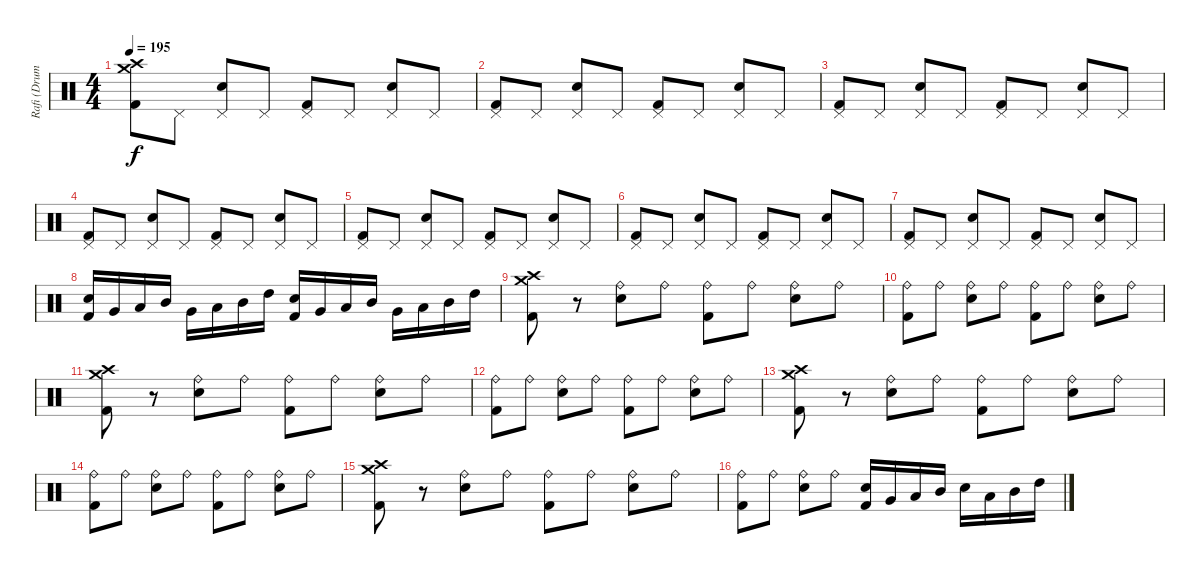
\track ("Rafi (Drums)" "Rafi (Drum") {instrument percussion}
\staff {score}
\articulation defaults
\ts (4 4)
\tempo 195
\clef neutral
\ks c
("Crash medium (hit)" "Crash high (hit)" "Kick (hit) 2").8{dy f} "Pedal Hi-Hat (hit)".8 ("Pedal Hi-Hat (hit)" "Snare (hit) 2").8 "Pedal Hi-Hat (hit)".8 ("Pedal Hi-Hat (hit)" "Kick (hit) 2").8 "Pedal Hi-Hat (hit)".8 ("Pedal Hi-Hat (hit)" "Snare (hit) 2").8 "Pedal Hi-Hat (hit)".8 |
("Pedal Hi-Hat (hit)" "Kick (hit) 2").8 "Pedal Hi-Hat (hit)".8 ("Pedal Hi-Hat (hit)" "Snare (hit) 2").8 "Pedal Hi-Hat (hit)".8 ("Pedal Hi-Hat (hit)" "Kick (hit) 2").8 "Pedal Hi-Hat (hit)".8 ("Pedal Hi-Hat (hit)" "Snare (hit) 2").8 "Pedal Hi-Hat (hit)".8 |
("Pedal Hi-Hat (hit)" "Kick (hit) 2").8 "Pedal Hi-Hat (hit)".8 ("Pedal Hi-Hat (hit)" "Snare (hit) 2").8 "Pedal Hi-Hat (hit)".8 ("Pedal Hi-Hat (hit)" "Kick (hit) 2").8 "Pedal Hi-Hat (hit)".8 ("Pedal Hi-Hat (hit)" "Snare (hit) 2").8 "Pedal Hi-Hat (hit)".8 |
("Pedal Hi-Hat (hit)" "Kick (hit) 2").8 "Pedal Hi-Hat (hit)".8 ("Pedal Hi-Hat (hit)" "Snare (hit) 2").8 "Pedal Hi-Hat (hit)".8 ("Pedal Hi-Hat (hit)" "Kick (hit) 2").8 "Pedal Hi-Hat (hit)".8 ("Pedal Hi-Hat (hit)" "Snare (hit) 2").8 "Pedal Hi-Hat (hit)".8 |
("Pedal Hi-Hat (hit)" "Kick (hit) 2").8 "Pedal Hi-Hat (hit)".8 ("Pedal Hi-Hat (hit)" "Snare (hit) 2").8 "Pedal Hi-Hat (hit)".8 ("Pedal Hi-Hat (hit)" "Kick (hit) 2").8 "Pedal Hi-Hat (hit)".8 ("Pedal Hi-Hat (hit)" "Snare (hit) 2").8 "Pedal Hi-Hat (hit)".8 |
("Pedal Hi-Hat (hit)" "Kick (hit) 2").8 "Pedal Hi-Hat (hit)".8 ("Pedal Hi-Hat (hit)" "Snare (hit) 2").8 "Pedal Hi-Hat (hit)".8 ("Pedal Hi-Hat (hit)" "Kick (hit) 2").8 "Pedal Hi-Hat (hit)".8 ("Pedal Hi-Hat (hit)" "Snare (hit) 2").8 "Pedal Hi-Hat (hit)".8 |
("Pedal Hi-Hat (hit)" "Kick (hit) 2").8 "Pedal Hi-Hat (hit)".8 ("Pedal Hi-Hat (hit)" "Snare (hit) 2").8 "Pedal Hi-Hat (hit)".8 ("Pedal Hi-Hat (hit)" "Kick (hit) 2").8 "Pedal Hi-Hat (hit)".8 ("Pedal Hi-Hat (hit)" "Snare (hit) 2").8 "Pedal Hi-Hat (hit)".8 |
("Snare (hit) 2" "Kick (hit) 2").16 "Very Low Tom (hit)".16 "Low Tom (hit)".16 "Mid Tom (hit)".16 "Very Low Tom (hit)".16 "Low Tom (hit)".16 "Mid Tom (hit)".16 "High Tom (hit)".16 ("Snare (hit) 2" "Kick (hit) 2").16 "Very Low Tom (hit)".16 "Low Tom (hit)".16 "Mid Tom (hit)".16 "Very Low Tom (hit)".16 "Low Tom (hit)".16 "Mid Tom (hit)".16 "High Tom (hit)".16 |
("Crash medium (hit)" "Crash high (hit)" "Kick (hit) 2").8 r.8 ("Ride (bell)" "Snare (hit) 2").8 "Ride (bell)".8 ("Ride (bell)" "Kick (hit) 2").8 "Ride (bell)".8 ("Ride (bell)" "Snare (hit) 2").8 "Ride (bell)".8 |
("Ride (bell)" "Kick (hit) 2").8 "Ride (bell)".8 ("Ride (bell)" "Snare (hit) 2").8 "Ride (bell)".8 ("Ride (bell)" "Kick (hit) 2").8 "Ride (bell)".8 ("Ride (bell)" "Snare (hit) 2").8 "Ride (bell)".8 |
("Crash medium (hit)" "Crash high (hit)" "Kick (hit) 2").8 r.8 ("Ride (bell)" "Snare (hit) 2").8 "Ride (bell)".8 ("Ride (bell)" "Kick (hit) 2").8 "Ride (bell)".8 ("Ride (bell)" "Snare (hit) 2").8 "Ride (bell)".8 |
("Ride (bell)" "Kick (hit) 2").8 "Ride (bell)".8 ("Ride (bell)" "Snare (hit) 2").8 "Ride (bell)".8 ("Ride (bell)" "Kick (hit) 2").8 "Ride (bell)".8 ("Ride (bell)" "Snare (hit) 2").8 "Ride (bell)".8 |
("Crash medium (hit)" "Crash high (hit)" "Kick (hit) 2").8 r.8 ("Ride (bell)" "Snare (hit) 2").8 "Ride (bell)".8 ("Ride (bell)" "Kick (hit) 2").8 "Ride (bell)".8 ("Ride (bell)" "Snare (hit) 2").8 "Ride (bell)".8 |
("Ride (bell)" "Kick (hit) 2").8 "Ride (bell)".8 ("Ride (bell)" "Snare (hit) 2").8 "Ride (bell)".8 ("Ride (bell)" "Kick (hit) 2").8 "Ride (bell)".8 ("Ride (bell)" "Snare (hit) 2").8 "Ride (bell)".8 |
("Crash medium (hit)" "Crash high (hit)" "Kick (hit) 2").8 r.8 ("Ride (bell)" "Snare (hit) 2").8 "Ride (bell)".8 ("Ride (bell)" "Kick (hit) 2").8 "Ride (bell)".8 ("Ride (bell)" "Snare (hit) 2").8 "Ride (bell)".8 |
("Ride (bell)" "Kick (hit) 2").8 "Ride (bell)".8 ("Ride (bell)" "Snare (hit) 2").8 "Ride (bell)".8 ("Snare (hit) 2" "Kick (hit) 2").16 "Very Low Tom (hit)".16 "Low Tom (hit)".16 "Mid Tom (hit)".16 "Snare (hit) 2".16 "Low Tom (hit)".16 "Mid Tom (hit)".16 "High Tom (hit)".16
